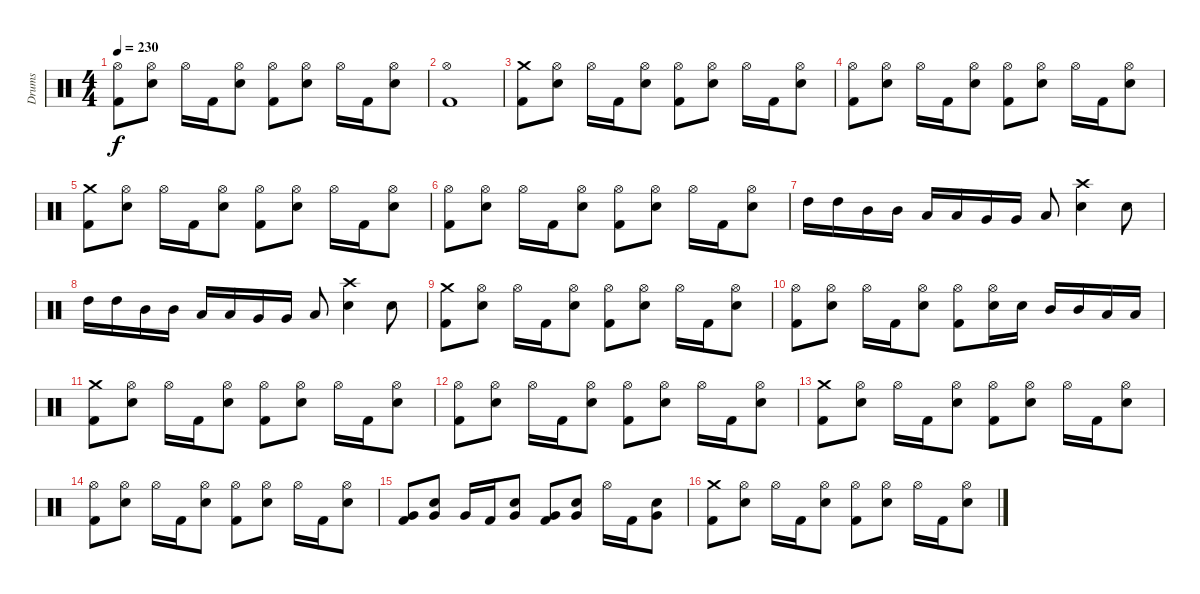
\track ("Drums" "Drums") {instrument percussion}
\staff {score}
\articulation defaults
\ts (4 4)
\tempo 230
\clef neutral
\ks c
("Kick (hit) 2" "Hi-Hat (open)").8{dy f} ("Snare (hit) 2" "Hi-Hat (open)").8 "Hi-Hat (open)".16 "Kick (hit) 2".16 ("Snare (hit) 2" "Hi-Hat (open)").8 ("Kick (hit) 2" "Hi-Hat (open)").8 ("Snare (hit) 2" "Hi-Hat (open)").8 "Hi-Hat (open)".16 "Kick (hit) 2".16 ("Snare (hit) 2" "Hi-Hat (open)").8 |
("Hi-Hat (open)" "Kick (hit) 2").1 |
("Kick (hit) 2" "Crash medium (hit)").8 ("Snare (hit) 2" "Hi-Hat (open)").8 "Hi-Hat (open)".16 "Kick (hit) 2".16 ("Snare (hit) 2" "Hi-Hat (open)").8 ("Kick (hit) 2" "Hi-Hat (open)").8 ("Snare (hit) 2" "Hi-Hat (open)").8 "Hi-Hat (open)".16 "Kick (hit) 2".16 ("Snare (hit) 2" "Hi-Hat (open)").8 |
("Kick (hit) 2" "Hi-Hat (open)").8 ("Snare (hit) 2" "Hi-Hat (open)").8 "Hi-Hat (open)".16 "Kick (hit) 2".16 ("Snare (hit) 2" "Hi-Hat (open)").8 ("Kick (hit) 2" "Hi-Hat (open)").8 ("Snare (hit) 2" "Hi-Hat (open)").8 "Hi-Hat (open)".16 "Kick (hit) 2".16 ("Snare (hit) 2" "Hi-Hat (open)").8 |
("Kick (hit) 2" "Crash medium (hit)").8 ("Snare (hit) 2" "Hi-Hat (open)").8 "Hi-Hat (open)".16 "Kick (hit) 2".16 ("Snare (hit) 2" "Hi-Hat (open)").8 ("Kick (hit) 2" "Hi-Hat (open)").8 ("Snare (hit) 2" "Hi-Hat (open)").8 "Hi-Hat (open)".16 "Kick (hit) 2".16 ("Snare (hit) 2" "Hi-Hat (open)").8 |
("Kick (hit) 2" "Hi-Hat (open)").8 ("Snare (hit) 2" "Hi-Hat (open)").8 "Hi-Hat (open)".16 "Kick (hit) 2".16 ("Snare (hit) 2" "Hi-Hat (open)").8 ("Kick (hit) 2" "Hi-Hat (open)").8 ("Snare (hit) 2" "Hi-Hat (open)").8 "Hi-Hat (open)".16 "Kick (hit) 2".16 ("Snare (hit) 2" "Hi-Hat (open)").8 |
"High Tom (hit)".16 "High Tom (hit)".16 "Mid Tom (hit)".16 "Mid Tom (hit)".16 "Low Tom (hit)".16 "Low Tom (hit)".16 "Very Low Tom (hit)".16 "Very Low Tom (hit)".16 "Low Floor Tom (hit)".8 ("Snare (hit) 2" "Crash high (hit)").4 "Snare (hit) 2".8 |
"High Tom (hit)".16 "High Tom (hit)".16 "Mid Tom (hit)".16 "Mid Tom (hit)".16 "Low Tom (hit)".16 "Low Tom (hit)".16 "Very Low Tom (hit)".16 "Very Low Tom (hit)".16 "Low Floor Tom (hit)".8 ("Snare (hit) 2" "Crash high (hit)").4 "Snare (hit) 2".8 |
("Kick (hit) 2" "Crash medium (hit)").8 ("Snare (hit) 2" "Hi-Hat (open)").8 "Hi-Hat (open)".16 "Kick (hit) 2".16 ("Snare (hit) 2" "Hi-Hat (open)").8 ("Kick (hit) 2" "Hi-Hat (open)").8 ("Snare (hit) 2" "Hi-Hat (open)").8 "Hi-Hat (open)".16 "Kick (hit) 2".16 ("Snare (hit) 2" "Hi-Hat (open)").8 |
("Kick (hit) 2" "Hi-Hat (open)").8 ("Snare (hit) 2" "Hi-Hat (open)").8 "Hi-Hat (open)".16 "Kick (hit) 2".16 ("Snare (hit) 2" "Hi-Hat (open)").8 ("Kick (hit) 2" "Hi-Hat (open)").8 ("Snare (hit) 2" "Hi-Hat (open)").16 "Snare (hit) 2".16 "Mid Tom (hit)".16 "Mid Tom (hit)".16 "Low Tom (hit)".16 "Low Tom (hit)".16 |
("Kick (hit) 2" "Crash medium (hit)").8 ("Snare (hit) 2" "Hi-Hat (open)").8 "Hi-Hat (open)".16 "Kick (hit) 2".16 ("Snare (hit) 2" "Hi-Hat (open)").8 ("Kick (hit) 2" "Hi-Hat (open)").8 ("Snare (hit) 2" "Hi-Hat (open)").8 "Hi-Hat (open)".16 "Kick (hit) 2".16 ("Snare (hit) 2" "Hi-Hat (open)").8 |
("Kick (hit) 2" "Hi-Hat (open)").8 ("Snare (hit) 2" "Hi-Hat (open)").8 "Hi-Hat (open)".16 "Kick (hit) 2".16 ("Snare (hit) 2" "Hi-Hat (open)").8 ("Kick (hit) 2" "Hi-Hat (open)").8 ("Snare (hit) 2" "Hi-Hat (open)").8 "Hi-Hat (open)".16 "Kick (hit) 2".16 ("Snare (hit) 2" "Hi-Hat (open)").8 |
("Kick (hit) 2" "Crash medium (hit)").8 ("Snare (hit) 2" "Hi-Hat (open)").8 "Hi-Hat (open)".16 "Kick (hit) 2".16 ("Snare (hit) 2" "Hi-Hat (open)").8 ("Kick (hit) 2" "Hi-Hat (open)").8 ("Snare (hit) 2" "Hi-Hat (open)").8 "Hi-Hat (open)".16 "Kick (hit) 2".16 ("Snare (hit) 2" "Hi-Hat (open)").8 |
("Kick (hit) 2" "Hi-Hat (open)").8 ("Snare (hit) 2" "Hi-Hat (open)").8 "Hi-Hat (open)".16 "Kick (hit) 2".16 ("Snare (hit) 2" "Hi-Hat (open)").8 ("Kick (hit) 2" "Hi-Hat (open)").8 ("Snare (hit) 2" "Hi-Hat (open)").8 "Hi-Hat (open)".16 "Kick (hit) 2".16 ("Snare (hit) 2" "Hi-Hat (open)").8 |
("Kick (hit) 2" "Very Low Tom (hit)").8 ("Snare (hit) 2" "Very Low Tom (hit)").8 "Very Low Tom (hit)".16 "Kick (hit) 2".16 ("Snare (hit) 2" "Very Low Tom (hit)").8 ("Kick (hit) 2" "Very Low Tom (hit)").8 ("Snare (hit) 2" "Very Low Tom (hit)").8 "Hi-Hat (open)".16 "Kick (hit) 2".16 ("Snare (hit) 2" "Very Low Tom (hit)").8 |
("Kick (hit) 2" "Crash medium (hit)").8 ("Snare (hit) 2" "Hi-Hat (open)").8 "Hi-Hat (open)".16 "Kick (hit) 2".16 ("Snare (hit) 2" "Hi-Hat (open)").8 ("Kick (hit) 2" "Hi-Hat (open)").8 ("Snare (hit) 2" "Hi-Hat (open)").8 "Hi-Hat (open)".16 "Kick (hit) 2".16 ("Snare (hit) 2" "Hi-Hat (open)").8
